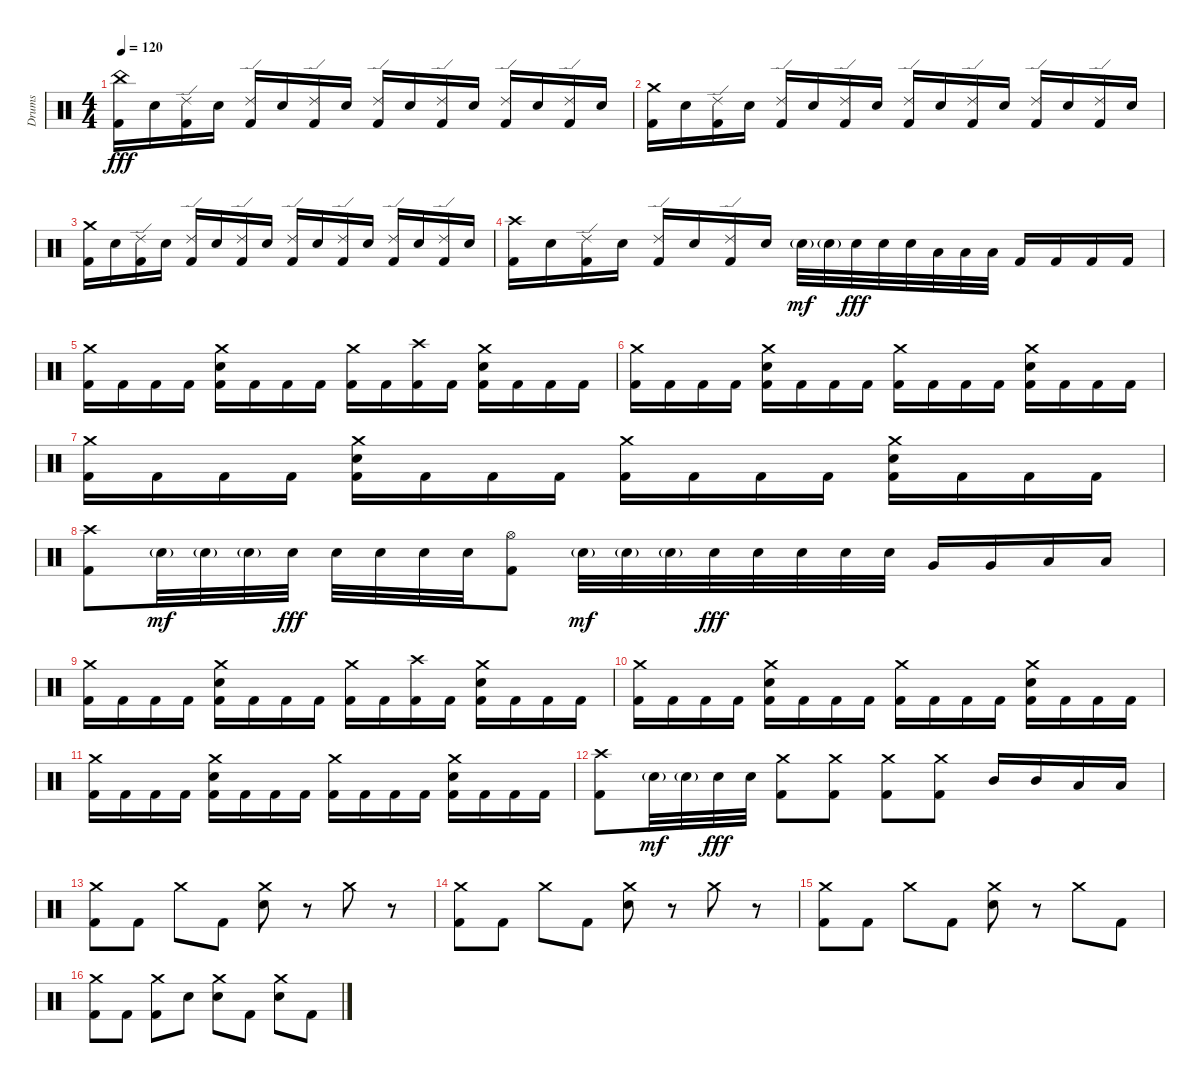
\track ("Drums" "Drums") {instrument percussion}
\staff {score}
\articulation defaults
\ts (4 4)
\tempo 120
\clef neutral
\ks c
("China (hit)" "Kick (hit) 2").16{dy fff} "Electric Snare (hit)".16 ("Ride (edge) 2" "Kick (hit) 2").16 "Electric Snare (hit)".16 ("Ride (edge) 2" "Kick (hit) 2").16 "Electric Snare (hit)".16 ("Ride (edge) 2" "Kick (hit) 2").16 "Electric Snare (hit)".16 ("Ride (edge) 2" "Kick (hit) 2").16 "Electric Snare (hit)".16 ("Ride (edge) 2" "Kick (hit) 2").16 "Electric Snare (hit)".16 ("Ride (edge) 2" "Kick (hit) 2").16 "Electric Snare (hit)".16 ("Ride (edge) 2" "Kick (hit) 2").16 "Electric Snare (hit)".16 |
("Crash medium (hit)" "Kick (hit) 2").16 "Electric Snare (hit)".16 ("Ride (edge) 2" "Kick (hit) 2").16 "Electric Snare (hit)".16 ("Ride (edge) 2" "Kick (hit) 2").16 "Electric Snare (hit)".16 ("Ride (edge) 2" "Kick (hit) 2").16 "Electric Snare (hit)".16 ("Ride (edge) 2" "Kick (hit) 2").16 "Electric Snare (hit)".16 ("Ride (edge) 2" "Kick (hit) 2").16 "Electric Snare (hit)".16 ("Ride (edge) 2" "Kick (hit) 2").16 "Electric Snare (hit)".16 ("Ride (edge) 2" "Kick (hit) 2").16 "Electric Snare (hit)".16 |
("Crash medium (hit)" "Kick (hit) 2").16 "Electric Snare (hit)".16 ("Ride (edge) 2" "Kick (hit) 2").16 "Electric Snare (hit)".16 ("Ride (edge) 2" "Kick (hit) 2").16 "Electric Snare (hit)".16 ("Ride (edge) 2" "Kick (hit) 2").16 "Electric Snare (hit)".16 ("Ride (edge) 2" "Kick (hit) 2").16 "Electric Snare (hit)".16 ("Ride (edge) 2" "Kick (hit) 2").16 "Electric Snare (hit)".16 ("Ride (edge) 2" "Kick (hit) 2").16 "Electric Snare (hit)".16 ("Ride (edge) 2" "Kick (hit) 2").16 "Electric Snare (hit)".16 |
("Crash high (hit)" "Kick (hit) 2").16 "Electric Snare (hit)".16 ("Ride (edge) 2" "Kick (hit) 2").16 "Electric Snare (hit)".16 ("Ride (edge) 2" "Kick (hit) 2").16 "Electric Snare (hit)".16 ("Ride (edge) 2" "Kick (hit) 2").16 "Electric Snare (hit)".16 "Electric Snare (hit)"{g}.32{dy mf} "Electric Snare (hit)"{g}.32 "Electric Snare (hit)".32{dy fff} "Electric Snare (hit)".32 "Electric Snare (hit)".32 "Low Tom (hit)".32 "Low Tom (hit)".32 "Low Tom (hit)".32 "Kick (hit) 2".16 "Kick (hit) 2".16 "Kick (hit) 2".16 "Kick (hit) 2".16 |
("Crash medium (hit)" "Kick (hit) 2").16 "Kick (hit) 2".16 "Kick (hit) 2".16 "Kick (hit) 2".16 ("Crash medium (hit)" "Electric Snare (hit)" "Kick (hit) 2").16 "Kick (hit) 2".16 "Kick (hit) 2".16 "Kick (hit) 2".16 ("Crash medium (hit)" "Kick (hit) 2").16 "Kick (hit) 2".16 ("Crash high (hit)" "Kick (hit) 2").16 "Kick (hit) 2".16 ("Crash medium (hit)" "Electric Snare (hit)" "Kick (hit) 2").16 "Kick (hit) 2".16 "Kick (hit) 2".16 "Kick (hit) 2".16 |
("Crash medium (hit)" "Kick (hit) 2").16 "Kick (hit) 2".16 "Kick (hit) 2".16 "Kick (hit) 2".16 ("Crash medium (hit)" "Electric Snare (hit)" "Kick (hit) 2").16 "Kick (hit) 2".16 "Kick (hit) 2".16 "Kick (hit) 2".16 ("Crash medium (hit)" "Kick (hit) 2").16 "Kick (hit) 2".16 "Kick (hit) 2".16 "Kick (hit) 2".16 ("Crash medium (hit)" "Electric Snare (hit)" "Kick (hit) 2").16 "Kick (hit) 2".16 "Kick (hit) 2".16 "Kick (hit) 2".16 |
("Crash medium (hit)" "Kick (hit) 2").16 "Kick (hit) 2".16 "Kick (hit) 2".16 "Kick (hit) 2".16 ("Crash medium (hit)" "Electric Snare (hit)" "Kick (hit) 2").16 "Kick (hit) 2".16 "Kick (hit) 2".16 "Kick (hit) 2".16 ("Crash medium (hit)" "Kick (hit) 2").16 "Kick (hit) 2".16 "Kick (hit) 2".16 "Kick (hit) 2".16 ("Crash medium (hit)" "Electric Snare (hit)" "Kick (hit) 2").16 "Kick (hit) 2".16 "Kick (hit) 2".16 "Kick (hit) 2".16 |
("Crash high (hit)" "Kick (hit) 2").8 "Electric Snare (hit)"{g}.32{dy mf} "Electric Snare (hit)"{g}.32 "Electric Snare (hit)"{g}.32 "Electric Snare (hit)".32{dy fff} "Electric Snare (hit)".32 "Electric Snare (hit)".32 "Electric Snare (hit)".32 "Electric Snare (hit)".32 ("Hi-Hat (open)" "Kick (hit) 2").8 "Electric Snare (hit)"{g}.32{dy mf} "Electric Snare (hit)"{g}.32 "Electric Snare (hit)"{g}.32 "Electric Snare (hit)".32{dy fff} "Electric Snare (hit)".32 "Electric Snare (hit)".32 "Electric Snare (hit)".32 "Electric Snare (hit)".32 "Very Low Tom (hit)".16 "Very Low Tom (hit)".16 "Low Tom (hit)".16 "Low Tom (hit)".16 |
("Crash medium (hit)" "Kick (hit) 2").16 "Kick (hit) 2".16 "Kick (hit) 2".16 "Kick (hit) 2".16 ("Crash medium (hit)" "Electric Snare (hit)" "Kick (hit) 2").16 "Kick (hit) 2".16 "Kick (hit) 2".16 "Kick (hit) 2".16 ("Crash medium (hit)" "Kick (hit) 2").16 "Kick (hit) 2".16 ("Crash high (hit)" "Kick (hit) 2").16 "Kick (hit) 2".16 ("Crash medium (hit)" "Electric Snare (hit)" "Kick (hit) 2").16 "Kick (hit) 2".16 "Kick (hit) 2".16 "Kick (hit) 2".16 |
("Crash medium (hit)" "Kick (hit) 2").16 "Kick (hit) 2".16 "Kick (hit) 2".16 "Kick (hit) 2".16 ("Crash medium (hit)" "Electric Snare (hit)" "Kick (hit) 2").16 "Kick (hit) 2".16 "Kick (hit) 2".16 "Kick (hit) 2".16 ("Crash medium (hit)" "Kick (hit) 2").16 "Kick (hit) 2".16 "Kick (hit) 2".16 "Kick (hit) 2".16 ("Crash medium (hit)" "Electric Snare (hit)" "Kick (hit) 2").16 "Kick (hit) 2".16 "Kick (hit) 2".16 "Kick (hit) 2".16 |
("Crash medium (hit)" "Kick (hit) 2").16 "Kick (hit) 2".16 "Kick (hit) 2".16 "Kick (hit) 2".16 ("Crash medium (hit)" "Electric Snare (hit)" "Kick (hit) 2").16 "Kick (hit) 2".16 "Kick (hit) 2".16 "Kick (hit) 2".16 ("Crash medium (hit)" "Kick (hit) 2").16 "Kick (hit) 2".16 "Kick (hit) 2".16 "Kick (hit) 2".16 ("Crash medium (hit)" "Electric Snare (hit)" "Kick (hit) 2").16 "Kick (hit) 2".16 "Kick (hit) 2".16 "Kick (hit) 2".16 |
("Crash high (hit)" "Kick (hit) 2").8 "Electric Snare (hit)"{g}.32{dy mf} "Electric Snare (hit)"{g}.32 "Electric Snare (hit)".32{dy fff} "Electric Snare (hit)".32 ("Crash medium (hit)" "Kick (hit) 2").8 ("Crash medium (hit)" "Kick (hit) 2").8 ("Crash medium (hit)" "Kick (hit) 2").8 ("Crash medium (hit)" "Kick (hit) 2").8 "Mid Tom (hit)".16 "Mid Tom (hit)".16 "Low Tom (hit)".16 "Low Tom (hit)".16 |
("Crash medium (hit)" "Kick (hit) 2").8 "Kick (hit) 2".8 "Crash medium (hit)".8 "Kick (hit) 2".8 ("Crash medium (hit)" "Electric Snare (hit)").8 r.8 "Crash medium (hit)".8 r.8 |
("Crash medium (hit)" "Kick (hit) 2").8 "Kick (hit) 2".8 "Crash medium (hit)".8 "Kick (hit) 2".8 ("Crash medium (hit)" "Electric Snare (hit)").8 r.8 "Crash medium (hit)".8 r.8 |
("Crash medium (hit)" "Kick (hit) 2").8 "Kick (hit) 2".8 "Crash medium (hit)".8 "Kick (hit) 2".8 ("Crash medium (hit)" "Electric Snare (hit)").8 r.8 "Crash medium (hit)".8 "Kick (hit) 2".8 |
("Crash medium (hit)" "Kick (hit) 2").8 "Kick (hit) 2".8 ("Crash medium (hit)" "Kick (hit) 2").8 "Electric Snare (hit)".8 ("Crash medium (hit)" "Electric Snare (hit)").8 "Kick (hit) 2".8 ("Crash medium (hit)" "Electric Snare (hit)").8 "Kick (hit) 2".8
